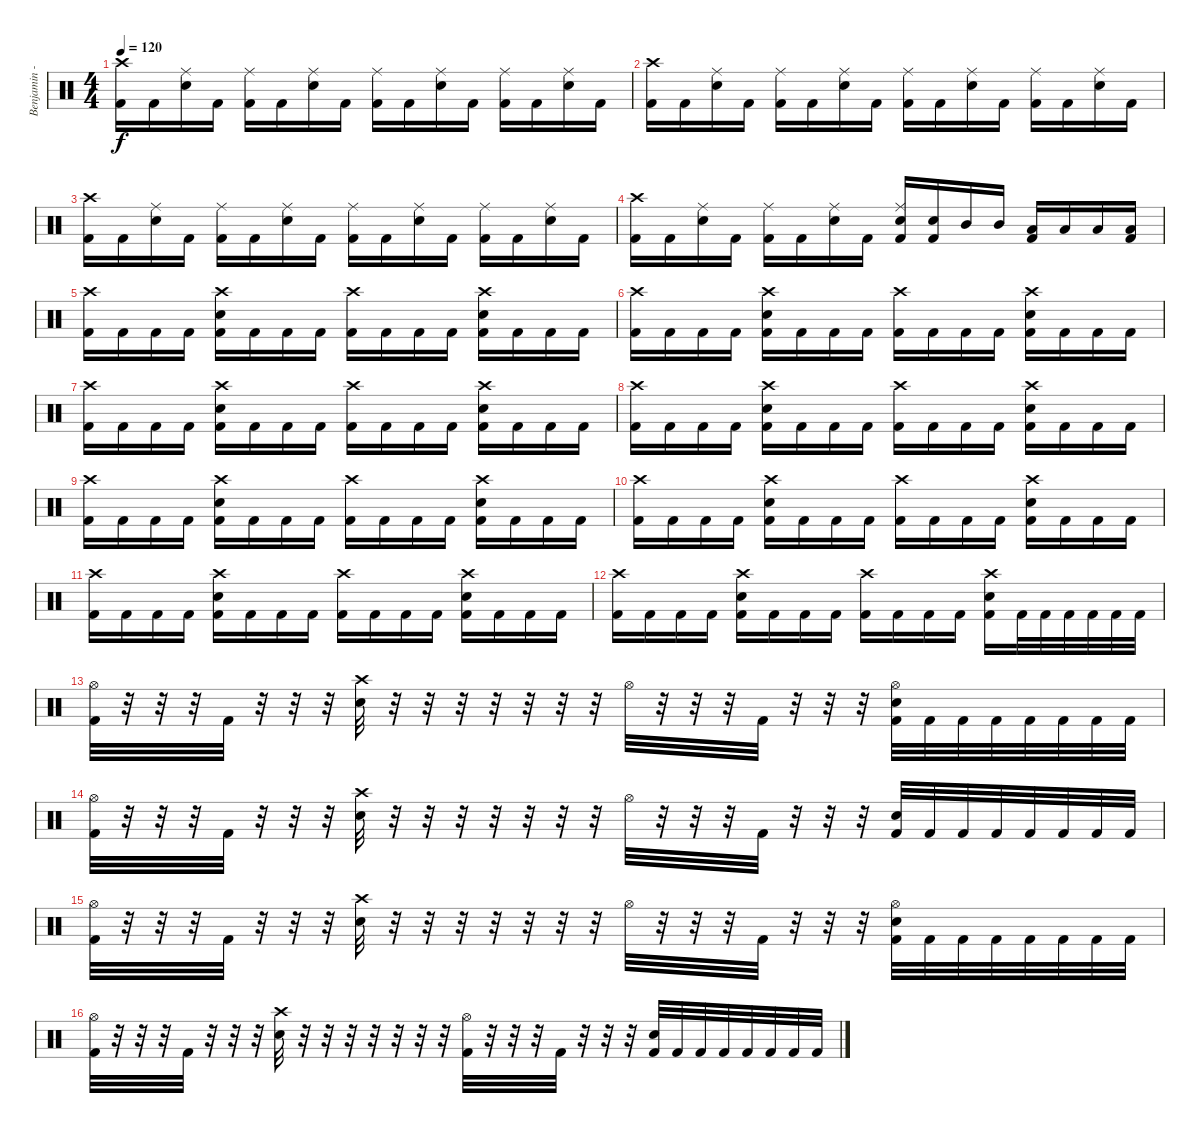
\track ("Benjamin - Drums" "Benjamin -") {instrument percussion}
\staff {score}
\articulation defaults
\ts (4 4)
\tempo 120
\clef neutral
\ks c
("Crash high (hit)" "Kick (hit) 2").16{dy f} "Kick (hit) 2".16 ("Ride (middle)" "Snare (hit) 2").16 "Kick (hit) 2".16 ("Ride (middle)" "Kick (hit) 2").16 "Kick (hit) 2".16 ("Ride (middle)" "Snare (hit) 2").16 "Kick (hit) 2".16 ("Ride (middle)" "Kick (hit) 2").16 "Kick (hit) 2".16 ("Ride (middle)" "Snare (hit) 2").16 "Kick (hit) 2".16 ("Ride (middle)" "Kick (hit) 2").16 "Kick (hit) 2".16 ("Ride (middle)" "Snare (hit) 2").16 "Kick (hit) 2".16 |
("Crash high (hit)" "Kick (hit) 2").16 "Kick (hit) 2".16 ("Ride (middle)" "Snare (hit) 2").16 "Kick (hit) 2".16 ("Ride (middle)" "Kick (hit) 2").16 "Kick (hit) 2".16 ("Ride (middle)" "Snare (hit) 2").16 "Kick (hit) 2".16 ("Ride (middle)" "Kick (hit) 2").16 "Kick (hit) 2".16 ("Ride (middle)" "Snare (hit) 2").16 "Kick (hit) 2".16 ("Ride (middle)" "Kick (hit) 2").16 "Kick (hit) 2".16 ("Ride (middle)" "Snare (hit) 2").16 "Kick (hit) 2".16 |
("Crash high (hit)" "Kick (hit) 2").16 "Kick (hit) 2".16 ("Ride (middle)" "Snare (hit) 2").16 "Kick (hit) 2".16 ("Ride (middle)" "Kick (hit) 2").16 "Kick (hit) 2".16 ("Ride (middle)" "Snare (hit) 2").16 "Kick (hit) 2".16 ("Ride (middle)" "Kick (hit) 2").16 "Kick (hit) 2".16 ("Ride (middle)" "Snare (hit) 2").16 "Kick (hit) 2".16 ("Ride (middle)" "Kick (hit) 2").16 "Kick (hit) 2".16 ("Ride (middle)" "Snare (hit) 2").16 "Kick (hit) 2".16 |
("Crash high (hit)" "Kick (hit) 2").16 "Kick (hit) 2".16 ("Ride (middle)" "Snare (hit) 2").16 "Kick (hit) 2".16 ("Ride (middle)" "Kick (hit) 2").16 "Kick (hit) 2".16 ("Ride (middle)" "Snare (hit) 2").16 "Kick (hit) 2".16 ("Ride (middle)" "Snare (hit) 2" "Kick (hit) 2").16 ("Snare (hit) 2" "Kick (hit) 2").16 "Mid Tom (hit)".16 "Mid Tom (hit)".16 ("Low Tom (hit)" "Kick (hit) 2").16 "Low Tom (hit)".16 "Low Floor Tom (hit)".16 ("Low Floor Tom (hit)" "Kick (hit) 2").16 |
("Crash high (hit)" "Kick (hit) 2").16 "Kick (hit) 2".16 "Kick (hit) 2".16 "Kick (hit) 2".16 ("Crash high (hit)" "Snare (hit) 2" "Kick (hit) 2").16 "Kick (hit) 2".16 "Kick (hit) 2".16 "Kick (hit) 2".16 ("Crash high (hit)" "Kick (hit) 2").16 "Kick (hit) 2".16 "Kick (hit) 2".16 "Kick (hit) 2".16 ("Crash high (hit)" "Snare (hit) 2" "Kick (hit) 2").16 "Kick (hit) 2".16 "Kick (hit) 2".16 "Kick (hit) 2".16 |
("Crash high (hit)" "Kick (hit) 2").16 "Kick (hit) 2".16 "Kick (hit) 2".16 "Kick (hit) 2".16 ("Crash high (hit)" "Snare (hit) 2" "Kick (hit) 2").16 "Kick (hit) 2".16 "Kick (hit) 2".16 "Kick (hit) 2".16 ("Crash high (hit)" "Kick (hit) 2").16 "Kick (hit) 2".16 "Kick (hit) 2".16 "Kick (hit) 2".16 ("Crash high (hit)" "Snare (hit) 2" "Kick (hit) 2").16 "Kick (hit) 2".16 "Kick (hit) 2".16 "Kick (hit) 2".16 |
("Crash high (hit)" "Kick (hit) 2").16 "Kick (hit) 2".16 "Kick (hit) 2".16 "Kick (hit) 2".16 ("Crash high (hit)" "Snare (hit) 2" "Kick (hit) 2").16 "Kick (hit) 2".16 "Kick (hit) 2".16 "Kick (hit) 2".16 ("Crash high (hit)" "Kick (hit) 2").16 "Kick (hit) 2".16 "Kick (hit) 2".16 "Kick (hit) 2".16 ("Crash high (hit)" "Snare (hit) 2" "Kick (hit) 2").16 "Kick (hit) 2".16 "Kick (hit) 2".16 "Kick (hit) 2".16 |
("Crash high (hit)" "Kick (hit) 2").16 "Kick (hit) 2".16 "Kick (hit) 2".16 "Kick (hit) 2".16 ("Crash high (hit)" "Snare (hit) 2" "Kick (hit) 2").16 "Kick (hit) 2".16 "Kick (hit) 2".16 "Kick (hit) 2".16 ("Crash high (hit)" "Kick (hit) 2").16 "Kick (hit) 2".16 "Kick (hit) 2".16 "Kick (hit) 2".16 ("Crash high (hit)" "Snare (hit) 2" "Kick (hit) 2").16 "Kick (hit) 2".16 "Kick (hit) 2".16 "Kick (hit) 2".16 |
("Crash high (hit)" "Kick (hit) 2").16 "Kick (hit) 2".16 "Kick (hit) 2".16 "Kick (hit) 2".16 ("Crash high (hit)" "Snare (hit) 2" "Kick (hit) 2").16 "Kick (hit) 2".16 "Kick (hit) 2".16 "Kick (hit) 2".16 ("Crash high (hit)" "Kick (hit) 2").16 "Kick (hit) 2".16 "Kick (hit) 2".16 "Kick (hit) 2".16 ("Crash high (hit)" "Snare (hit) 2" "Kick (hit) 2").16 "Kick (hit) 2".16 "Kick (hit) 2".16 "Kick (hit) 2".16 |
("Crash high (hit)" "Kick (hit) 2").16 "Kick (hit) 2".16 "Kick (hit) 2".16 "Kick (hit) 2".16 ("Crash high (hit)" "Snare (hit) 2" "Kick (hit) 2").16 "Kick (hit) 2".16 "Kick (hit) 2".16 "Kick (hit) 2".16 ("Crash high (hit)" "Kick (hit) 2").16 "Kick (hit) 2".16 "Kick (hit) 2".16 "Kick (hit) 2".16 ("Crash high (hit)" "Snare (hit) 2" "Kick (hit) 2").16 "Kick (hit) 2".16 "Kick (hit) 2".16 "Kick (hit) 2".16 |
("Crash high (hit)" "Kick (hit) 2").16 "Kick (hit) 2".16 "Kick (hit) 2".16 "Kick (hit) 2".16 ("Crash high (hit)" "Snare (hit) 2" "Kick (hit) 2").16 "Kick (hit) 2".16 "Kick (hit) 2".16 "Kick (hit) 2".16 ("Crash high (hit)" "Kick (hit) 2").16 "Kick (hit) 2".16 "Kick (hit) 2".16 "Kick (hit) 2".16 ("Crash high (hit)" "Snare (hit) 2" "Kick (hit) 2").16 "Kick (hit) 2".16 "Kick (hit) 2".16 "Kick (hit) 2".16 |
("Crash high (hit)" "Kick (hit) 2").16 "Kick (hit) 2".16 "Kick (hit) 2".16 "Kick (hit) 2".16 ("Crash high (hit)" "Snare (hit) 2" "Kick (hit) 2").16 "Kick (hit) 2".16 "Kick (hit) 2".16 "Kick (hit) 2".16 ("Crash high (hit)" "Kick (hit) 2").16 "Kick (hit) 2".16 "Kick (hit) 2".16 "Kick (hit) 2".16 ("Crash high (hit)" "Snare (hit) 2" "Kick (hit) 2").16 "Kick (hit) 2".32 "Kick (hit) 2".32 "Kick (hit) 2".32 "Kick (hit) 2".32 "Kick (hit) 2".32 "Kick (hit) 2".32 |
("Hi-Hat (open)" "Kick (hit) 2").32 r.32 r.32 r.32 "Kick (hit) 2".32 r.32 r.32 r.32 ("Crash high (hit)" "Snare (hit) 2").32 r.32 r.32 r.32 r.32 r.32 r.32 r.32 "Hi-Hat (open)".32 r.32 r.32 r.32 "Kick (hit) 2".32 r.32 r.32 r.32 ("Hi-Hat (open)" "Snare (hit) 2" "Kick (hit) 2").32 "Kick (hit) 2".32 "Kick (hit) 2".32 "Kick (hit) 2".32 "Kick (hit) 2".32 "Kick (hit) 2".32 "Kick (hit) 2".32 "Kick (hit) 2".32 |
("Hi-Hat (open)" "Kick (hit) 2").32 r.32 r.32 r.32 "Kick (hit) 2".32 r.32 r.32 r.32 ("Crash high (hit)" "Snare (hit) 2").32 r.32 r.32 r.32 r.32 r.32 r.32 r.32 "Hi-Hat (open)".32 r.32 r.32 r.32 "Kick (hit) 2".32 r.32 r.32 r.32 ("Snare (hit) 2" "Kick (hit) 2").32 "Kick (hit) 2".32 "Kick (hit) 2".32 "Kick (hit) 2".32 "Kick (hit) 2".32 "Kick (hit) 2".32 "Kick (hit) 2".32 "Kick (hit) 2".32 |
("Hi-Hat (open)" "Kick (hit) 2").32 r.32 r.32 r.32 "Kick (hit) 2".32 r.32 r.32 r.32 ("Crash high (hit)" "Snare (hit) 2").32 r.32 r.32 r.32 r.32 r.32 r.32 r.32 "Hi-Hat (open)".32 r.32 r.32 r.32 "Kick (hit) 2".32 r.32 r.32 r.32 ("Hi-Hat (open)" "Snare (hit) 2" "Kick (hit) 2").32 "Kick (hit) 2".32 "Kick (hit) 2".32 "Kick (hit) 2".32 "Kick (hit) 2".32 "Kick (hit) 2".32 "Kick (hit) 2".32 "Kick (hit) 2".32 |
("Hi-Hat (open)" "Kick (hit) 2").32 r.32 r.32 r.32 "Kick (hit) 2".32 r.32 r.32 r.32 ("Crash high (hit)" "Snare (hit) 2").32 r.32 r.32 r.32 r.32 r.32 r.32 r.32 ("Hi-Hat (open)" "Kick (hit) 2").32 r.32 r.32 r.32 "Kick (hit) 2".32 r.32 r.32 r.32 ("Snare (hit) 2" "Kick (hit) 2").32 "Kick (hit) 2".32 "Kick (hit) 2".32 "Kick (hit) 2".32 "Kick (hit) 2".32 "Kick (hit) 2".32 "Kick (hit) 2".32 "Kick (hit) 2".32
